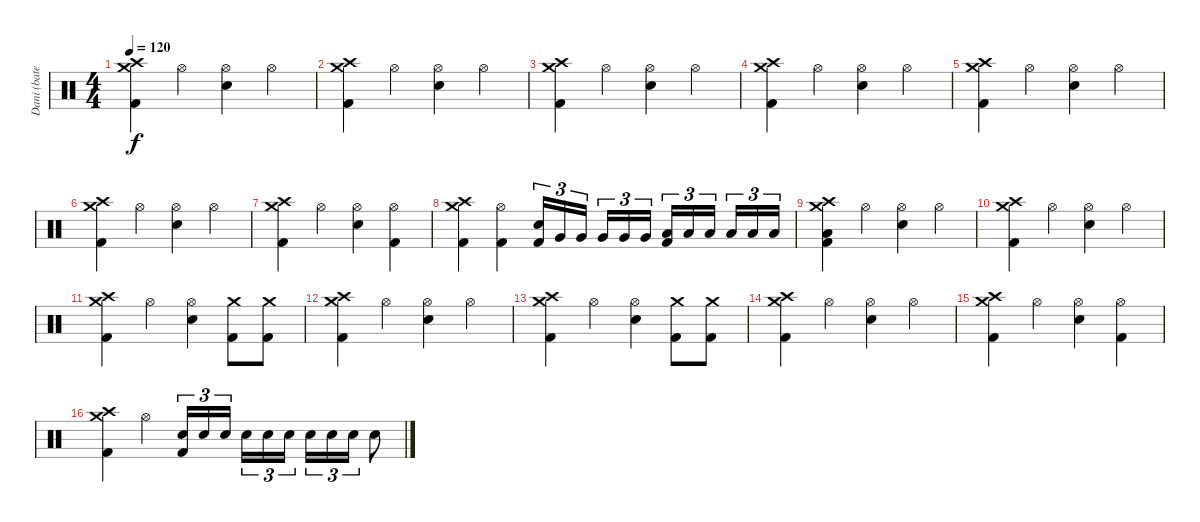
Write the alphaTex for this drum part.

\track ("Dani (batería)" "Dani (bate") {instrument percussion}
\staff {score}
\articulation defaults
\ts (4 4)
\tempo 120
\clef neutral
\ks c
("Crash high (hit)" "Crash medium (hit)" "Kick (hit) 2").4{dy f} "Hi-Hat (open)".4 ("Hi-Hat (open)" "Electric Snare (hit)").4 "Hi-Hat (open)".4 |
("Crash high (hit)" "Crash medium (hit)" "Kick (hit) 2").4 "Hi-Hat (open)".4 ("Hi-Hat (open)" "Electric Snare (hit)").4 "Hi-Hat (open)".4 |
("Crash high (hit)" "Crash medium (hit)" "Kick (hit) 2").4 "Hi-Hat (open)".4 ("Hi-Hat (open)" "Electric Snare (hit)").4 "Hi-Hat (open)".4 |
("Crash high (hit)" "Crash medium (hit)" "Kick (hit) 2").4 "Hi-Hat (open)".4 ("Hi-Hat (open)" "Electric Snare (hit)").4 "Hi-Hat (open)".4 |
("Crash high (hit)" "Crash medium (hit)" "Kick (hit) 2").4 "Hi-Hat (open)".4 ("Hi-Hat (open)" "Electric Snare (hit)").4 "Hi-Hat (open)".4 |
("Crash high (hit)" "Crash medium (hit)" "Kick (hit) 2").4 "Hi-Hat (open)".4 ("Hi-Hat (open)" "Electric Snare (hit)").4 "Hi-Hat (open)".4 |
("Crash high (hit)" "Crash medium (hit)" "Kick (hit) 2").4 "Hi-Hat (open)".4 ("Hi-Hat (open)" "Electric Snare (hit)").4 ("Hi-Hat (open)" "Kick (hit) 2").4 |
("Crash high (hit)" "Crash medium (hit)" "Kick (hit) 2").4 ("Hi-Hat (open)" "Kick (hit) 2").4 ("Electric Snare (hit)" "Kick (hit) 2").16{tu (3 2)} "Very Low Tom (hit)".16{tu (3 2)} "Very Low Tom (hit)".16{tu (3 2)} "Very Low Tom (hit)".16{tu (3 2)} "Very Low Tom (hit)".16{tu (3 2)} "Very Low Tom (hit)".16{tu (3 2)} ("Low Floor Tom (hit)" "Kick (hit) 2").16{tu (3 2)} "Low Floor Tom (hit)".16{tu (3 2)} "Low Floor Tom (hit)".16{tu (3 2)} "Low Floor Tom (hit)".16{tu (3 2)} "Low Floor Tom (hit)".16{tu (3 2)} "Low Floor Tom (hit)".16{tu (3 2)} |
("Crash high (hit)" "Crash medium (hit)" "Low Floor Tom (hit)" "Kick (hit) 2").4 "Hi-Hat (open)".4 ("Hi-Hat (open)" "Electric Snare (hit)").4 "Hi-Hat (open)".4 |
("Crash high (hit)" "Crash medium (hit)" "Kick (hit) 2").4 "Hi-Hat (open)".4 ("Hi-Hat (open)" "Electric Snare (hit)").4 "Hi-Hat (open)".4 |
("Crash high (hit)" "Crash medium (hit)" "Kick (hit) 2").4 "Hi-Hat (open)".4 ("Hi-Hat (open)" "Electric Snare (hit)").4 ("Crash medium (hit)" "Kick (hit) 2").8 ("Crash medium (hit)" "Kick (hit) 2").8 |
("Crash high (hit)" "Crash medium (hit)" "Kick (hit) 2").4 "Hi-Hat (open)".4 ("Hi-Hat (open)" "Electric Snare (hit)").4 "Hi-Hat (open)".4 |
("Crash high (hit)" "Crash medium (hit)" "Kick (hit) 2").4 "Hi-Hat (open)".4 ("Hi-Hat (open)" "Electric Snare (hit)").4 ("Crash medium (hit)" "Kick (hit) 2").8 ("Crash medium (hit)" "Kick (hit) 2").8 |
("Crash high (hit)" "Crash medium (hit)" "Kick (hit) 2").4 "Hi-Hat (open)".4 ("Hi-Hat (open)" "Electric Snare (hit)").4 "Hi-Hat (open)".4 |
("Crash high (hit)" "Crash medium (hit)" "Kick (hit) 2").4 "Hi-Hat (open)".4 ("Hi-Hat (open)" "Electric Snare (hit)").4 ("Hi-Hat (open)" "Kick (hit) 2").4 |
("Crash high (hit)" "Crash medium (hit)" "Kick (hit) 2").4 "Hi-Hat (open)".4 ("Electric Snare (hit)" "Kick (hit) 2").16{tu (3 2)} "Electric Snare (hit)".16{tu (3 2)} "Electric Snare (hit)".16{tu (3 2)} "Electric Snare (hit)".16{tu (3 2)} "Electric Snare (hit)".16{tu (3 2)} "Electric Snare (hit)".16{tu (3 2)} "Electric Snare (hit)".16{tu (3 2)} "Electric Snare (hit)".16{tu (3 2)} "Electric Snare (hit)".16{tu (3 2)} "Electric Snare (hit)".8
